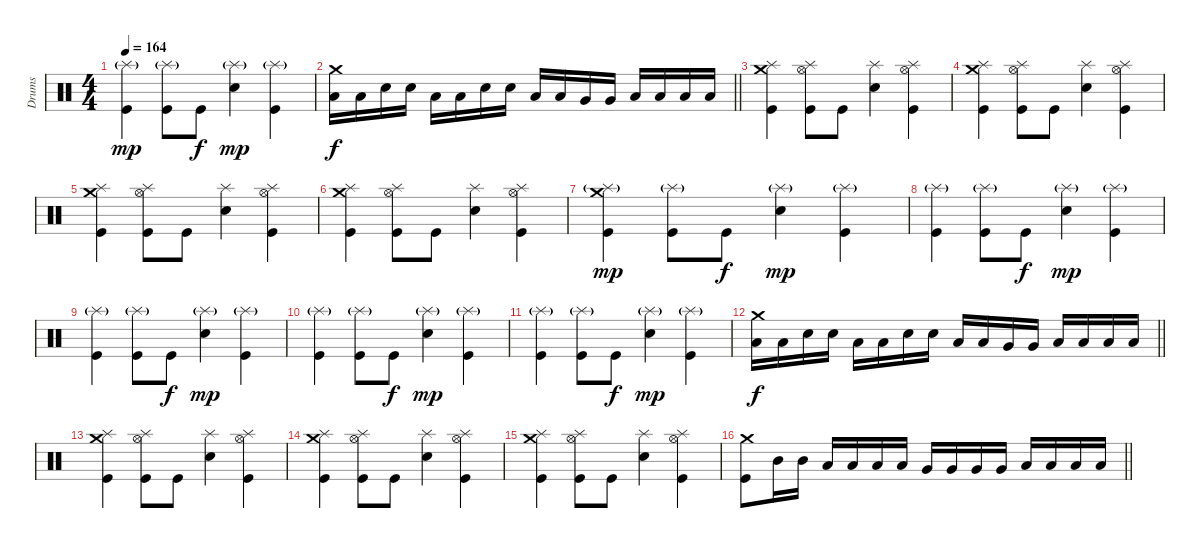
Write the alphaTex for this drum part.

\track ("Drums" "Drums") {instrument percussion}
\staff {score}
\articulation defaults
\ts (4 4)
\tempo 164
\clef neutral
\ks c
("Splash (hit)"{g} "Kick (hit)").4{dy mp} ("Splash (hit)"{g} "Kick (hit)").8 "Kick (hit)".8{dy f} ("Splash (hit)"{g} "Electric Snare (hit)").4{dy mp} ("Splash (hit)"{g} "Kick (hit)").4 |
\barLineRight lightlight
("Crash medium (hit)" "Low Tom (hit)").16{dy f} "Low Tom (hit)".16 "Electric Snare (hit)".16 "Electric Snare (hit)".16 "Low Tom (hit)".16 "Low Tom (hit)".16 "Electric Snare (hit)".16 "Electric Snare (hit)".16 "Low Tom (hit)".16 "Low Tom (hit)".16 "Very Low Tom (hit)".16 "Very Low Tom (hit)".16 "Low Floor Tom (hit)".16 "Low Floor Tom (hit)".16 "Low Floor Tom (hit)".16 "Low Floor Tom (hit)".16 |
\section ("" "")
("Crash medium (hit)" "Splash (hit)" "Kick (hit)").4 ("Hi-Hat (open)" "Splash (hit)" "Kick (hit)").8 "Kick (hit)".8 ("Splash (hit)" "Electric Snare (hit)").4 ("Hi-Hat (open)" "Splash (hit)" "Kick (hit)").4 |
("Crash medium (hit)" "Splash (hit)" "Kick (hit)").4 ("Hi-Hat (open)" "Splash (hit)" "Kick (hit)").8 "Kick (hit)".8 ("Splash (hit)" "Electric Snare (hit)").4 ("Hi-Hat (open)" "Splash (hit)" "Kick (hit)").4 |
("Crash medium (hit)" "Splash (hit)" "Kick (hit)").4 ("Hi-Hat (open)" "Splash (hit)" "Kick (hit)").8 "Kick (hit)".8 ("Splash (hit)" "Electric Snare (hit)").4 ("Hi-Hat (open)" "Splash (hit)" "Kick (hit)").4 |
("Crash medium (hit)" "Splash (hit)" "Kick (hit)").4 ("Hi-Hat (open)" "Splash (hit)" "Kick (hit)").8 "Kick (hit)".8 ("Splash (hit)" "Electric Snare (hit)").4 ("Hi-Hat (open)" "Splash (hit)" "Kick (hit)").4 |
("Crash medium (hit)" "Splash (hit)"{g} "Kick (hit)").4{dy mp} ("Splash (hit)"{g} "Kick (hit)").8 "Kick (hit)".8{dy f} ("Splash (hit)"{g} "Electric Snare (hit)").4{dy mp} ("Splash (hit)"{g} "Kick (hit)").4 |
("Splash (hit)"{g} "Kick (hit)").4 ("Splash (hit)"{g} "Kick (hit)").8 "Kick (hit)".8{dy f} ("Splash (hit)"{g} "Electric Snare (hit)").4{dy mp} ("Splash (hit)"{g} "Kick (hit)").4 |
("Splash (hit)"{g} "Kick (hit)").4 ("Splash (hit)"{g} "Kick (hit)").8 "Kick (hit)".8{dy f} ("Splash (hit)"{g} "Electric Snare (hit)").4{dy mp} ("Splash (hit)"{g} "Kick (hit)").4 |
("Splash (hit)"{g} "Kick (hit)").4 ("Splash (hit)"{g} "Kick (hit)").8 "Kick (hit)".8{dy f} ("Splash (hit)"{g} "Electric Snare (hit)").4{dy mp} ("Splash (hit)"{g} "Kick (hit)").4 |
("Splash (hit)"{g} "Kick (hit)").4 ("Splash (hit)"{g} "Kick (hit)").8 "Kick (hit)".8{dy f} ("Splash (hit)"{g} "Electric Snare (hit)").4{dy mp} ("Splash (hit)"{g} "Kick (hit)").4 |
\barLineRight lightlight
("Crash medium (hit)" "Low Tom (hit)").16{dy f} "Low Tom (hit)".16 "Electric Snare (hit)".16 "Electric Snare (hit)".16 "Low Tom (hit)".16 "Low Tom (hit)".16 "Electric Snare (hit)".16 "Electric Snare (hit)".16 "Low Tom (hit)".16 "Low Tom (hit)".16 "Very Low Tom (hit)".16 "Very Low Tom (hit)".16 "Low Floor Tom (hit)".16 "Low Floor Tom (hit)".16 "Low Floor Tom (hit)".16 "Low Floor Tom (hit)".16 |
("Crash medium (hit)" "Splash (hit)" "Kick (hit)").4 ("Hi-Hat (open)" "Splash (hit)" "Kick (hit)").8 "Kick (hit)".8 ("Splash (hit)" "Electric Snare (hit)").4 ("Hi-Hat (open)" "Splash (hit)" "Kick (hit)").4 |
("Crash medium (hit)" "Splash (hit)" "Kick (hit)").4 ("Hi-Hat (open)" "Splash (hit)" "Kick (hit)").8 "Kick (hit)".8 ("Splash (hit)" "Electric Snare (hit)").4 ("Hi-Hat (open)" "Splash (hit)" "Kick (hit)").4 |
("Crash medium (hit)" "Splash (hit)" "Kick (hit)").4 ("Hi-Hat (open)" "Splash (hit)" "Kick (hit)").8 "Kick (hit)".8 ("Splash (hit)" "Electric Snare (hit)").4 ("Hi-Hat (open)" "Splash (hit)" "Kick (hit)").4 |
\barLineRight lightlight
("Crash medium (hit)" "Kick (hit)").8 "Mid Tom (hit)".16 "Mid Tom (hit)".16 "Low Tom (hit)".16 "Low Tom (hit)".16 "Low Tom (hit)".16 "Low Tom (hit)".16 "Very Low Tom (hit)".16 "Very Low Tom (hit)".16 "Very Low Tom (hit)".16 "Very Low Tom (hit)".16 "Low Floor Tom (hit)".16 "Low Floor Tom (hit)".16 "Low Floor Tom (hit)".16 "Low Floor Tom (hit)".16
